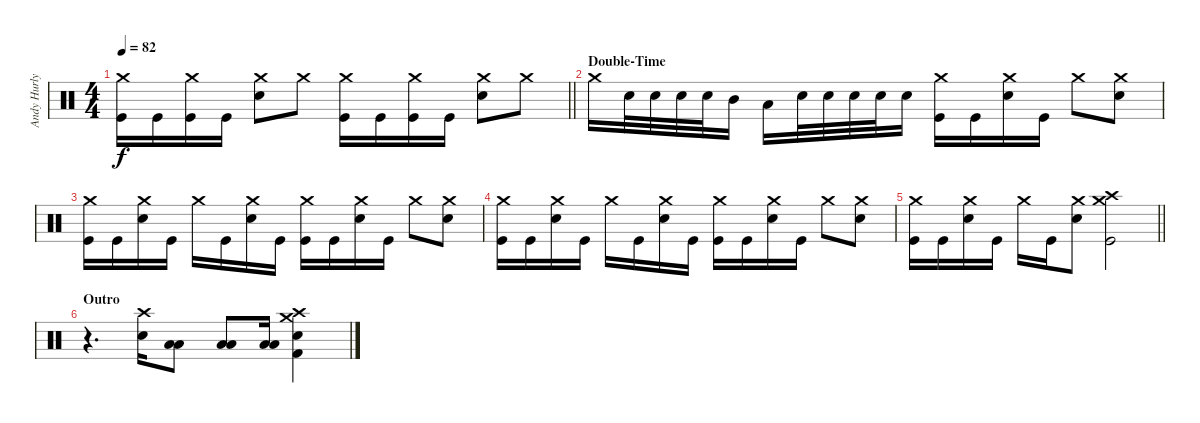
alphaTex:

\track ("Andy Hurly (Drums)" "Andy Hurly") {instrument percussion}
\staff {score}
\articulation defaults
\ts (4 4)
\tempo 82
\clef neutral
\barLineRight lightlight
\ks c
("Crash medium (hit)" "Kick (hit)").16{dy f} "Kick (hit)".16 ("Crash medium (hit)" "Kick (hit)").16 "Kick (hit)".16 ("Crash medium (hit)" "Electric Snare (hit)").8 "Crash medium (hit)".8 ("Crash medium (hit)" "Kick (hit)").16 "Kick (hit)".16 ("Crash medium (hit)" "Kick (hit)").16 "Kick (hit)".16 ("Crash medium (hit)" "Electric Snare (hit)").8 "Crash medium (hit)".8 |
\section ("" "Double-Time")
"Crash medium (hit)".16 "Electric Snare (hit)".32 "Electric Snare (hit)".32 "Electric Snare (hit)".32 "Electric Snare (hit)".32 "Mid Tom (hit)".16 "Low Tom (hit)".16 "Electric Snare (hit)".32 "Electric Snare (hit)".32 "Electric Snare (hit)".32 "Electric Snare (hit)".32 "Electric Snare (hit)".16 ("Crash medium (hit)" "Kick (hit)").16 "Kick (hit)".16 ("Crash medium (hit)" "Electric Snare (hit)").16 "Kick (hit)".16 "Crash medium (hit)".8 ("Crash medium (hit)" "Electric Snare (hit)").8 |
("Crash medium (hit)" "Kick (hit)").16 "Kick (hit)".16 ("Crash medium (hit)" "Electric Snare (hit)").16 "Kick (hit)".16 "Crash medium (hit)".16 "Kick (hit)".16 ("Crash medium (hit)" "Electric Snare (hit)").16 "Kick (hit)".16 ("Crash medium (hit)" "Kick (hit)").16 "Kick (hit)".16 ("Crash medium (hit)" "Electric Snare (hit)").16 "Kick (hit)".16 "Crash medium (hit)".8 ("Crash medium (hit)" "Electric Snare (hit)").8 |
("Crash medium (hit)" "Kick (hit)").16 "Kick (hit)".16 ("Crash medium (hit)" "Electric Snare (hit)").16 "Kick (hit)".16 "Crash medium (hit)".16 "Kick (hit)".16 ("Crash medium (hit)" "Electric Snare (hit)").16 "Kick (hit)".16 ("Crash medium (hit)" "Kick (hit)").16 "Kick (hit)".16 ("Crash medium (hit)" "Electric Snare (hit)").16 "Kick (hit)".16 "Crash medium (hit)".8 ("Crash medium (hit)" "Electric Snare (hit)").8 |
\barLineRight lightlight
("Crash medium (hit)" "Kick (hit)").16 "Kick (hit)".16 ("Crash medium (hit)" "Electric Snare (hit)").16 "Kick (hit)".16 "Crash medium (hit)".16 "Kick (hit)".16 ("Crash medium (hit)" "Electric Snare (hit)").8 ("Crash high (hit)" "Crash medium (hit)" "Kick (hit)").2 |
\section ("" "Outro")
r.4{d} ("Crash high (hit)" "Electric Snare (hit)").16 ("Low Tom (hit)" "Low Floor Tom (hit)").8 ("Low Tom (hit)" "Low Floor Tom (hit)").8 ("Low Tom (hit)" "Low Floor Tom (hit)").16 ("Crash high (hit)" "Crash medium (hit)" "Electric Snare (hit)" "Kick (hit) 2").4
